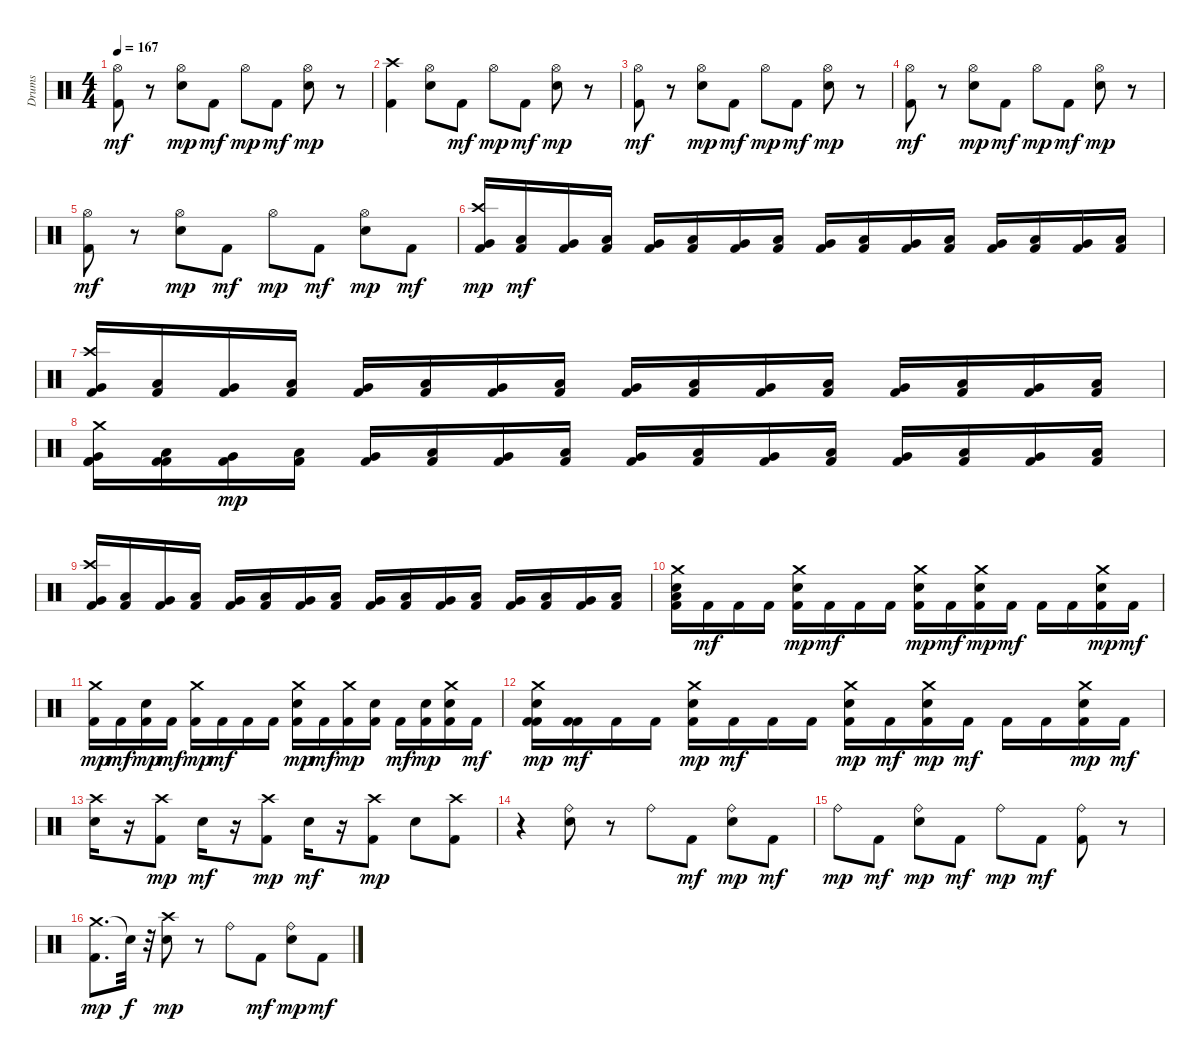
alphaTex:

\track ("Drums" "Drums") {instrument percussion}
\staff {score}
\articulation defaults
\ts (4 4)
\tempo 167
\clef neutral
\ks c
("Hi-Hat (open)" "Kick (hit) 2").8{dy mf} r.8 ("Electric Snare (hit)" "Hi-Hat (open)").8{dy mp} "Kick (hit) 2".8{dy mf} "Hi-Hat (open)".8{dy mp} "Kick (hit) 2".8{dy mf} ("Electric Snare (hit)" "Hi-Hat (open)").8{dy mp} r.8 |
("Kick (hit) 2" "Crash high (hit)").4 ("Electric Snare (hit)" "Hi-Hat (open)").8 "Kick (hit) 2".8{dy mf} "Hi-Hat (open)".8{dy mp} "Kick (hit) 2".8{dy mf} ("Electric Snare (hit)" "Hi-Hat (open)").8{dy mp} r.8 |
("Hi-Hat (open)" "Kick (hit) 2").8{dy mf} r.8 ("Electric Snare (hit)" "Hi-Hat (open)").8{dy mp} "Kick (hit) 2".8{dy mf} "Hi-Hat (open)".8{dy mp} "Kick (hit) 2".8{dy mf} ("Electric Snare (hit)" "Hi-Hat (open)").8{dy mp} r.8 |
("Hi-Hat (open)" "Kick (hit) 2").8{dy mf} r.8 ("Electric Snare (hit)" "Hi-Hat (open)").8{dy mp} "Kick (hit) 2".8{dy mf} "Hi-Hat (open)".8{dy mp} "Kick (hit) 2".8{dy mf} ("Electric Snare (hit)" "Hi-Hat (open)").8{dy mp} r.8 |
("Hi-Hat (open)" "Kick (hit) 2").8{dy mf} r.8 ("Electric Snare (hit)" "Hi-Hat (open)").8{dy mp} "Kick (hit) 2".8{dy mf} "Hi-Hat (open)".8{dy mp} "Kick (hit) 2".8{dy mf} ("Electric Snare (hit)" "Hi-Hat (open)").8{dy mp} "Kick (hit) 2".8{dy mf} |
("Crash high (hit)" "Very Low Tom (hit)" "Kick (hit) 2").16{dy mp} ("Low Tom (hit)" "Kick (hit) 2").16{dy mf} ("Very Low Tom (hit)" "Kick (hit) 2").16 ("Low Tom (hit)" "Kick (hit) 2").16 ("Very Low Tom (hit)" "Kick (hit) 2").16 ("Low Floor Tom (hit)" "Kick (hit) 2").16 ("Very Low Tom (hit)" "Kick (hit) 2").16 ("Low Floor Tom (hit)" "Kick (hit) 2").16 ("Very Low Tom (hit)" "Kick (hit) 2").16 ("Low Tom (hit)" "Kick (hit) 2").16 ("Very Low Tom (hit)" "Kick (hit) 2").16 ("Low Tom (hit)" "Kick (hit) 2").16 ("Very Low Tom (hit)" "Kick (hit) 2").16 ("Low Floor Tom (hit)" "Kick (hit) 2").16 ("Very Low Tom (hit)" "Kick (hit) 2").16 ("Low Floor Tom (hit)" "Kick (hit) 2").16 |
("Crash high (hit)" "Very Low Tom (hit)" "Kick (hit) 2").16 ("Low Tom (hit)" "Kick (hit) 2").16 ("Very Low Tom (hit)" "Kick (hit) 2").16 ("Low Tom (hit)" "Kick (hit) 2").16 ("Very Low Tom (hit)" "Kick (hit) 2").16 ("Low Floor Tom (hit)" "Kick (hit) 2").16 ("Very Low Tom (hit)" "Kick (hit) 2").16 ("Low Floor Tom (hit)" "Kick (hit) 2").16 ("Very Low Tom (hit)" "Kick (hit) 2").16 ("Low Tom (hit)" "Kick (hit) 2").16 ("Very Low Tom (hit)" "Kick (hit) 2").16 ("Low Tom (hit)" "Kick (hit) 2").16 ("Very Low Tom (hit)" "Kick (hit) 2").16 ("Low Floor Tom (hit)" "Kick (hit) 2").16 ("Very Low Tom (hit)" "Kick (hit) 2").16 ("Low Floor Tom (hit)" "Kick (hit) 2").16 |
("Crash medium (hit)" "Kick (hit) 2" "Very Low Tom (hit)" "Kick (hit) 2").16 ("Kick (hit) 2" "Low Tom (hit)" "Kick (hit) 2").16 ("Kick (hit) 2" "Very Low Tom (hit)").16{dy mp} ("Kick (hit) 2" "Low Tom (hit)").16 ("Kick (hit) 2" "Very Low Tom (hit)").16 ("Kick (hit) 2" "Low Floor Tom (hit)").16 ("Kick (hit) 2" "Very Low Tom (hit)").16 ("Kick (hit) 2" "Low Floor Tom (hit)").16 ("Kick (hit) 2" "Very Low Tom (hit)").16 ("Kick (hit) 2" "Low Tom (hit)").16 ("Kick (hit) 2" "Very Low Tom (hit)").16 ("Kick (hit) 2" "Low Tom (hit)").16 ("Kick (hit) 2" "Very Low Tom (hit)").16 ("Kick (hit) 2" "Low Floor Tom (hit)").16 ("Kick (hit) 2" "Very Low Tom (hit)").16 ("Kick (hit) 2" "Low Floor Tom (hit)").16 |
("Crash high (hit)" "Kick (hit) 2" "Very Low Tom (hit)").16 ("Kick (hit) 2" "Low Tom (hit)").16 ("Kick (hit) 2" "Very Low Tom (hit)").16 ("Kick (hit) 2" "Low Tom (hit)").16 ("Kick (hit) 2" "Very Low Tom (hit)").16 ("Kick (hit) 2" "Low Floor Tom (hit)").16 ("Kick (hit) 2" "Very Low Tom (hit)").16 ("Kick (hit) 2" "Low Floor Tom (hit)").16 ("Kick (hit) 2" "Very Low Tom (hit)").16 ("Kick (hit) 2" "Low Tom (hit)").16 ("Kick (hit) 2" "Very Low Tom (hit)").16 ("Kick (hit) 2" "Low Tom (hit)").16 ("Kick (hit) 2" "Very Low Tom (hit)").16 ("Kick (hit) 2" "Low Floor Tom (hit)").16 ("Kick (hit) 2" "Very Low Tom (hit)").16 ("Kick (hit) 2" "Low Floor Tom (hit)").16 |
("Low Floor Tom (hit)" "Kick (hit) 2" "Electric Snare (hit)" "Crash medium (hit)").16 "Kick (hit) 2".16{dy mf} "Kick (hit) 2".16 "Kick (hit) 2".16 ("Kick (hit) 2" "Electric Snare (hit)" "Crash medium (hit)").16{dy mp} "Kick (hit) 2".16{dy mf} "Kick (hit) 2".16 "Kick (hit) 2".16 ("Kick (hit) 2" "Electric Snare (hit)" "Crash medium (hit)").16{dy mp} "Kick (hit) 2".16{dy mf} ("Kick (hit) 2" "Electric Snare (hit)" "Crash medium (hit)").16{dy mp} "Kick (hit) 2".16{dy mf} "Kick (hit) 2".16 "Kick (hit) 2".16 ("Kick (hit) 2" "Electric Snare (hit)" "Crash medium (hit)").16{dy mp} "Kick (hit) 2".16{dy mf} |
("Kick (hit) 2" "Crash medium (hit)").16{dy mp} "Kick (hit) 2".16{dy mf} ("Kick (hit) 2" "Electric Snare (hit)").16{dy mp} "Kick (hit) 2".16{dy mf} ("Kick (hit) 2" "Crash medium (hit)").16{dy mp} "Kick (hit) 2".16{dy mf} "Kick (hit) 2".16 "Kick (hit) 2".16 ("Kick (hit) 2" "Electric Snare (hit)" "Crash medium (hit)").16{dy mp} "Kick (hit) 2".16{dy mf} ("Kick (hit) 2" "Crash medium (hit)").16{dy mp} ("Kick (hit) 2" "Electric Snare (hit)").16 "Kick (hit) 2".16{dy mf} ("Kick (hit) 2" "Electric Snare (hit)").16{dy mp} ("Kick (hit) 2" "Crash medium (hit)" "Electric Snare (hit)").16 "Kick (hit) 2".16{dy mf} |
("Crash medium (hit)" "Kick (hit) 2" "Kick (hit) 2" "Electric Snare (hit)").16{dy mp} ("Kick (hit) 2" "Kick (hit) 2").16{dy mf} "Kick (hit) 2".16 "Kick (hit) 2".16 ("Kick (hit) 2" "Electric Snare (hit)" "Crash medium (hit)").16{dy mp} "Kick (hit) 2".16{dy mf} "Kick (hit) 2".16 "Kick (hit) 2".16 ("Kick (hit) 2" "Electric Snare (hit)" "Crash medium (hit)").16{dy mp} "Kick (hit) 2".16{dy mf} ("Kick (hit) 2" "Electric Snare (hit)" "Crash medium (hit)").16{dy mp} "Kick (hit) 2".16{dy mf} "Kick (hit) 2".16 "Kick (hit) 2".16 ("Kick (hit) 2" "Electric Snare (hit)" "Crash medium (hit)").16{dy mp} "Kick (hit) 2".16{dy mf} |
("Crash high (hit)" "Electric Snare (hit)").16 r.16 ("Kick (hit) 2" "Crash high (hit)").8{dy mp} "Electric Snare (hit)".16{dy mf} r.16 ("Kick (hit) 2" "Crash high (hit)").8{dy mp} "Electric Snare (hit)".16{dy mf} r.16 ("Kick (hit) 2" "Crash high (hit)").8{dy mp} "Electric Snare (hit)".8 ("Kick (hit) 2" "Crash high (hit)").8 |
r.4 ("Electric Snare (hit)" "Ride (bell)").8 r.8 "Ride (bell)".8 "Kick (hit) 2".8{dy mf} ("Electric Snare (hit)" "Ride (bell)").8{dy mp} "Kick (hit) 2".8{dy mf} |
"Ride (bell)".8{dy mp} "Kick (hit) 2".8{dy mf} ("Electric Snare (hit)" "Ride (bell)").8{dy mp} "Kick (hit) 2".8{dy mf} "Ride (bell)".8{dy mp} "Kick (hit) 2".8{dy mf} ("Ride (bell)" "Kick (hit) 2").8 r.8 |
("Crash medium (hit)" "Kick (hit) 2").8{d dy mp} "Snare (hit)"{t}.32{dy f} r.32 ("Electric Snare (hit)" "Crash high (hit)").8{dy mp} r.8 "Ride (bell)".8 "Kick (hit) 2".8{dy mf} ("Electric Snare (hit)" "Ride (bell)").8{dy mp} "Kick (hit) 2".8{dy mf}
